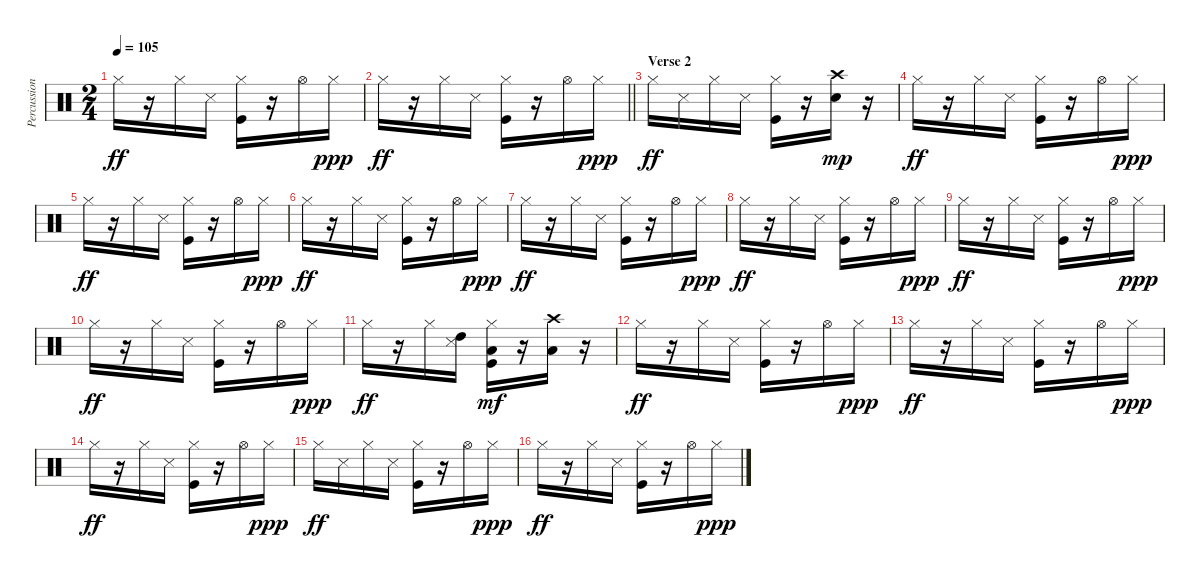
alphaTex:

\track ("Percussion" "Percussion") {instrument percussion}
\staff {score}
\articulation defaults
\ts (2 4)
\tempo 105
\clef neutral
\ks c "Hi-Hat (closed)".16{dy ff}
r.16 "Hi-Hat (closed)".16 "Snare (side stick) 3".16 ("Kick (hit)" "Hi-Hat (closed)").16 r.16 "Hi-Hat (open)".16 "Hi-Hat (closed)".16{dy ppp} |
\barLineRight lightlight "Hi-Hat (closed)".16{dy ff}
r.16 "Hi-Hat (closed)".16 "Snare (side stick) 3".16 ("Kick (hit)" "Hi-Hat (closed)").16 r.16 "Hi-Hat (open)".16 "Hi-Hat (closed)".16{dy ppp} |
\section ("" "Verse 2")
"Hi-Hat (closed)".16{dy ff} "Snare (side stick) 3".16 "Hi-Hat (closed)".16 "Snare (side stick) 3".16 ("Kick (hit)" "Hi-Hat (closed)").16 r.16 ("Snare (hit) 2" "Crash high (hit)").16{dy mp} r.16 |
"Hi-Hat (closed)".16{dy ff} r.16 "Hi-Hat (closed)".16 "Snare (side stick) 3".16 ("Kick (hit)" "Hi-Hat (closed)").16 r.16 "Hi-Hat (open)".16 "Hi-Hat (closed)".16{dy ppp} |
"Hi-Hat (closed)".16{dy ff} r.16 "Hi-Hat (closed)".16 "Snare (side stick) 3".16 ("Kick (hit)" "Hi-Hat (closed)").16 r.16 "Hi-Hat (open)".16 "Hi-Hat (closed)".16{dy ppp} |
"Hi-Hat (closed)".16{dy ff} r.16 "Hi-Hat (closed)".16 "Snare (side stick) 3".16 ("Kick (hit)" "Hi-Hat (closed)").16 r.16 "Hi-Hat (open)".16 "Hi-Hat (closed)".16{dy ppp} |
"Hi-Hat (closed)".16{dy ff} r.16 "Hi-Hat (closed)".16 "Snare (side stick) 3".16 ("Kick (hit)" "Hi-Hat (closed)").16 r.16 "Hi-Hat (open)".16 "Hi-Hat (closed)".16{dy ppp} |
"Hi-Hat (closed)".16{dy ff} r.16 "Hi-Hat (closed)".16 "Snare (side stick) 3".16 ("Kick (hit)" "Hi-Hat (closed)").16 r.16 "Hi-Hat (open)".16 "Hi-Hat (closed)".16{dy ppp} |
"Hi-Hat (closed)".16{dy ff} r.16 "Hi-Hat (closed)".16 "Snare (side stick) 3".16 ("Kick (hit)" "Hi-Hat (closed)").16 r.16 "Hi-Hat (open)".16 "Hi-Hat (closed)".16{dy ppp} |
"Hi-Hat (closed)".16{dy ff} r.16 "Hi-Hat (closed)".16 "Snare (side stick) 3".16 ("Kick (hit)" "Hi-Hat (closed)").16 r.16 "Hi-Hat (open)".16 "Hi-Hat (closed)".16{dy ppp} |
"Hi-Hat (closed)".16{dy ff} r.16 "Hi-Hat (closed)".16 ("Snare (side stick) 3" "High Tom (hit)").16 ("Kick (hit)" "Hi-Hat (closed)" "Low Tom (hit)").16{dy mf} r.16 ("Crash high (hit)" "Low Tom (hit)").16 r.16 |
"Hi-Hat (closed)".16{dy ff} r.16 "Hi-Hat (closed)".16 "Snare (side stick) 3".16 ("Kick (hit)" "Hi-Hat (closed)").16 r.16 "Hi-Hat (open)".16 "Hi-Hat (closed)".16{dy ppp} |
"Hi-Hat (closed)".16{dy ff} r.16 "Hi-Hat (closed)".16 "Snare (side stick) 3".16 ("Kick (hit)" "Hi-Hat (closed)").16 r.16 "Hi-Hat (open)".16 "Hi-Hat (closed)".16{dy ppp} |
"Hi-Hat (closed)".16{dy ff} r.16 "Hi-Hat (closed)".16 "Snare (side stick) 3".16 ("Kick (hit)" "Hi-Hat (closed)").16 r.16 "Hi-Hat (open)".16 "Hi-Hat (closed)".16{dy ppp} |
"Hi-Hat (closed)".16{dy ff} "Snare (side stick) 3".16 "Hi-Hat (closed)".16 "Snare (side stick) 3".16 ("Kick (hit)" "Hi-Hat (closed)").16 r.16 "Hi-Hat (open)".16 "Hi-Hat (closed)".16{dy ppp} |
"Hi-Hat (closed)".16{dy ff} r.16 "Hi-Hat (closed)".16 "Snare (side stick) 3".16 ("Kick (hit)" "Hi-Hat (closed)").16 r.16 "Hi-Hat (open)".16 "Hi-Hat (closed)".16{dy ppp}
